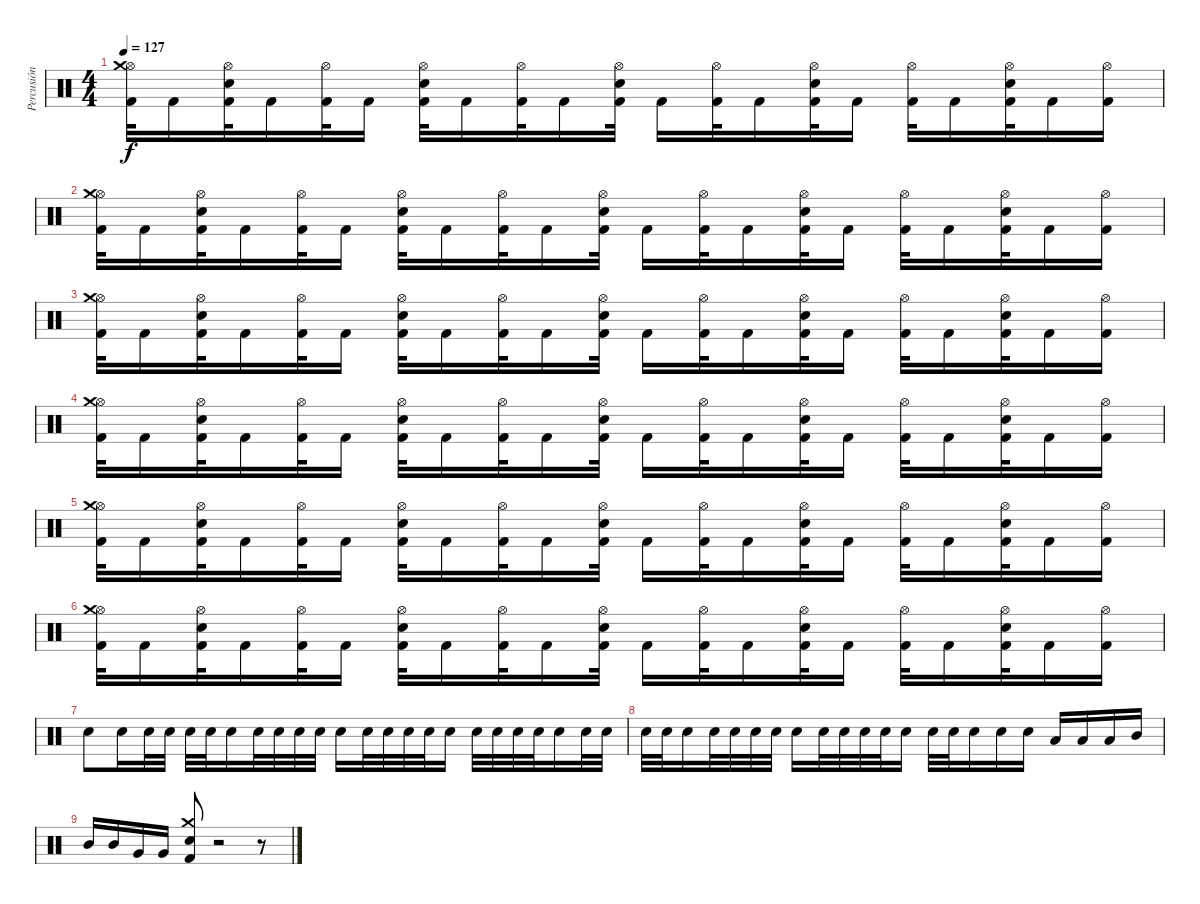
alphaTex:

\track ("Percusión" "Percusión") {instrument percussion}
\staff {score}
\articulation defaults
\ts (4 4)
\tempo 127
\clef neutral
\ks c
("Hi-Hat (open)" "Kick (hit) 2" "Crash medium (hit)").32{dy f} "Kick (hit) 2".16 ("Hi-Hat (open)" "Electric Snare (hit)" "Kick (hit) 2").32 "Kick (hit) 2".16 ("Hi-Hat (open)" "Kick (hit) 2").32 "Kick (hit) 2".16 ("Hi-Hat (open)" "Electric Snare (hit)" "Kick (hit) 2").32 "Kick (hit) 2".16 ("Hi-Hat (open)" "Kick (hit) 2").32 "Kick (hit) 2".16 ("Hi-Hat (open)" "Electric Snare (hit)" "Kick (hit) 2").32 "Kick (hit) 2".16 ("Hi-Hat (open)" "Kick (hit) 2").32 "Kick (hit) 2".16 ("Hi-Hat (open)" "Electric Snare (hit)" "Kick (hit) 2").32 "Kick (hit) 2".16 ("Hi-Hat (open)" "Kick (hit) 2").32 "Kick (hit) 2".16 ("Hi-Hat (open)" "Electric Snare (hit)" "Kick (hit) 2").32 "Kick (hit) 2".16 ("Hi-Hat (open)" "Kick (hit) 2").16 |
("Hi-Hat (open)" "Kick (hit) 2" "Crash medium (hit)").32 "Kick (hit) 2".16 ("Hi-Hat (open)" "Electric Snare (hit)" "Kick (hit) 2").32 "Kick (hit) 2".16 ("Hi-Hat (open)" "Kick (hit) 2").32 "Kick (hit) 2".16 ("Hi-Hat (open)" "Electric Snare (hit)" "Kick (hit) 2").32 "Kick (hit) 2".16 ("Hi-Hat (open)" "Kick (hit) 2").32 "Kick (hit) 2".16 ("Hi-Hat (open)" "Electric Snare (hit)" "Kick (hit) 2").32 "Kick (hit) 2".16 ("Hi-Hat (open)" "Kick (hit) 2").32 "Kick (hit) 2".16 ("Hi-Hat (open)" "Electric Snare (hit)" "Kick (hit) 2").32 "Kick (hit) 2".16 ("Hi-Hat (open)" "Kick (hit) 2").32 "Kick (hit) 2".16 ("Hi-Hat (open)" "Electric Snare (hit)" "Kick (hit) 2").32 "Kick (hit) 2".16 ("Hi-Hat (open)" "Kick (hit) 2").16 |
("Hi-Hat (open)" "Kick (hit) 2" "Crash medium (hit)").32 "Kick (hit) 2".16 ("Hi-Hat (open)" "Electric Snare (hit)" "Kick (hit) 2").32 "Kick (hit) 2".16 ("Hi-Hat (open)" "Kick (hit) 2").32 "Kick (hit) 2".16 ("Hi-Hat (open)" "Electric Snare (hit)" "Kick (hit) 2").32 "Kick (hit) 2".16 ("Hi-Hat (open)" "Kick (hit) 2").32 "Kick (hit) 2".16 ("Hi-Hat (open)" "Electric Snare (hit)" "Kick (hit) 2").32 "Kick (hit) 2".16 ("Hi-Hat (open)" "Kick (hit) 2").32 "Kick (hit) 2".16 ("Hi-Hat (open)" "Electric Snare (hit)" "Kick (hit) 2").32 "Kick (hit) 2".16 ("Hi-Hat (open)" "Kick (hit) 2").32 "Kick (hit) 2".16 ("Hi-Hat (open)" "Electric Snare (hit)" "Kick (hit) 2").32 "Kick (hit) 2".16 ("Hi-Hat (open)" "Kick (hit) 2").16 |
("Hi-Hat (open)" "Kick (hit) 2" "Crash medium (hit)").32 "Kick (hit) 2".16 ("Hi-Hat (open)" "Electric Snare (hit)" "Kick (hit) 2").32 "Kick (hit) 2".16 ("Hi-Hat (open)" "Kick (hit) 2").32 "Kick (hit) 2".16 ("Hi-Hat (open)" "Electric Snare (hit)" "Kick (hit) 2").32 "Kick (hit) 2".16 ("Hi-Hat (open)" "Kick (hit) 2").32 "Kick (hit) 2".16 ("Hi-Hat (open)" "Electric Snare (hit)" "Kick (hit) 2").32 "Kick (hit) 2".16 ("Hi-Hat (open)" "Kick (hit) 2").32 "Kick (hit) 2".16 ("Hi-Hat (open)" "Electric Snare (hit)" "Kick (hit) 2").32 "Kick (hit) 2".16 ("Hi-Hat (open)" "Kick (hit) 2").32 "Kick (hit) 2".16 ("Hi-Hat (open)" "Electric Snare (hit)" "Kick (hit) 2").32 "Kick (hit) 2".16 ("Hi-Hat (open)" "Kick (hit) 2").16 |
("Hi-Hat (open)" "Kick (hit) 2" "Crash medium (hit)").32 "Kick (hit) 2".16 ("Hi-Hat (open)" "Electric Snare (hit)" "Kick (hit) 2").32 "Kick (hit) 2".16 ("Hi-Hat (open)" "Kick (hit) 2").32 "Kick (hit) 2".16 ("Hi-Hat (open)" "Electric Snare (hit)" "Kick (hit) 2").32 "Kick (hit) 2".16 ("Hi-Hat (open)" "Kick (hit) 2").32 "Kick (hit) 2".16 ("Hi-Hat (open)" "Electric Snare (hit)" "Kick (hit) 2").32 "Kick (hit) 2".16 ("Hi-Hat (open)" "Kick (hit) 2").32 "Kick (hit) 2".16 ("Hi-Hat (open)" "Electric Snare (hit)" "Kick (hit) 2").32 "Kick (hit) 2".16 ("Hi-Hat (open)" "Kick (hit) 2").32 "Kick (hit) 2".16 ("Hi-Hat (open)" "Electric Snare (hit)" "Kick (hit) 2").32 "Kick (hit) 2".16 ("Hi-Hat (open)" "Kick (hit) 2").16 |
("Hi-Hat (open)" "Kick (hit) 2" "Crash medium (hit)").32 "Kick (hit) 2".16 ("Hi-Hat (open)" "Electric Snare (hit)" "Kick (hit) 2").32 "Kick (hit) 2".16 ("Hi-Hat (open)" "Kick (hit) 2").32 "Kick (hit) 2".16 ("Hi-Hat (open)" "Electric Snare (hit)" "Kick (hit) 2").32 "Kick (hit) 2".16 ("Hi-Hat (open)" "Kick (hit) 2").32 "Kick (hit) 2".16 ("Hi-Hat (open)" "Electric Snare (hit)" "Kick (hit) 2").32 "Kick (hit) 2".16 ("Hi-Hat (open)" "Kick (hit) 2").32 "Kick (hit) 2".16 ("Hi-Hat (open)" "Electric Snare (hit)" "Kick (hit) 2").32 "Kick (hit) 2".16 ("Hi-Hat (open)" "Kick (hit) 2").32 "Kick (hit) 2".16 ("Hi-Hat (open)" "Electric Snare (hit)" "Kick (hit) 2").32 "Kick (hit) 2".16 ("Hi-Hat (open)" "Kick (hit) 2").16 |
"Electric Snare (hit)".8 "Electric Snare (hit)".16 "Electric Snare (hit)".32 "Electric Snare (hit)".32 "Electric Snare (hit)".32 "Electric Snare (hit)".32 "Electric Snare (hit)".16 "Electric Snare (hit)".32 "Electric Snare (hit)".32 "Electric Snare (hit)".32 "Electric Snare (hit)".32 "Electric Snare (hit)".16 "Electric Snare (hit)".32 "Electric Snare (hit)".32 "Electric Snare (hit)".32 "Electric Snare (hit)".32 "Electric Snare (hit)".16 "Electric Snare (hit)".32 "Electric Snare (hit)".32 "Electric Snare (hit)".32 "Electric Snare (hit)".32 "Electric Snare (hit)".16 "Electric Snare (hit)".32 "Electric Snare (hit)".32 |
"Electric Snare (hit)".32 "Electric Snare (hit)".32 "Electric Snare (hit)".16 "Electric Snare (hit)".32 "Electric Snare (hit)".32 "Electric Snare (hit)".32 "Electric Snare (hit)".32 "Electric Snare (hit)".16 "Electric Snare (hit)".32 "Electric Snare (hit)".32 "Electric Snare (hit)".32 "Electric Snare (hit)".32 "Electric Snare (hit)".16 "Electric Snare (hit)".32 "Electric Snare (hit)".32 "Electric Snare (hit)".16 "Electric Snare (hit)".16 "Electric Snare (hit)".16 "Low Tom (hit)".16 "Low Tom (hit)".16 "Low Tom (hit)".16 "Mid Tom (hit)".16 |
"Mid Tom (hit)".16 "Mid Tom (hit)".16 "Very Low Tom (hit)".16 "Very Low Tom (hit)".16 ("Crash medium (hit)" "Electric Snare (hit)" "Kick (hit) 2").8 r.2 r.8
